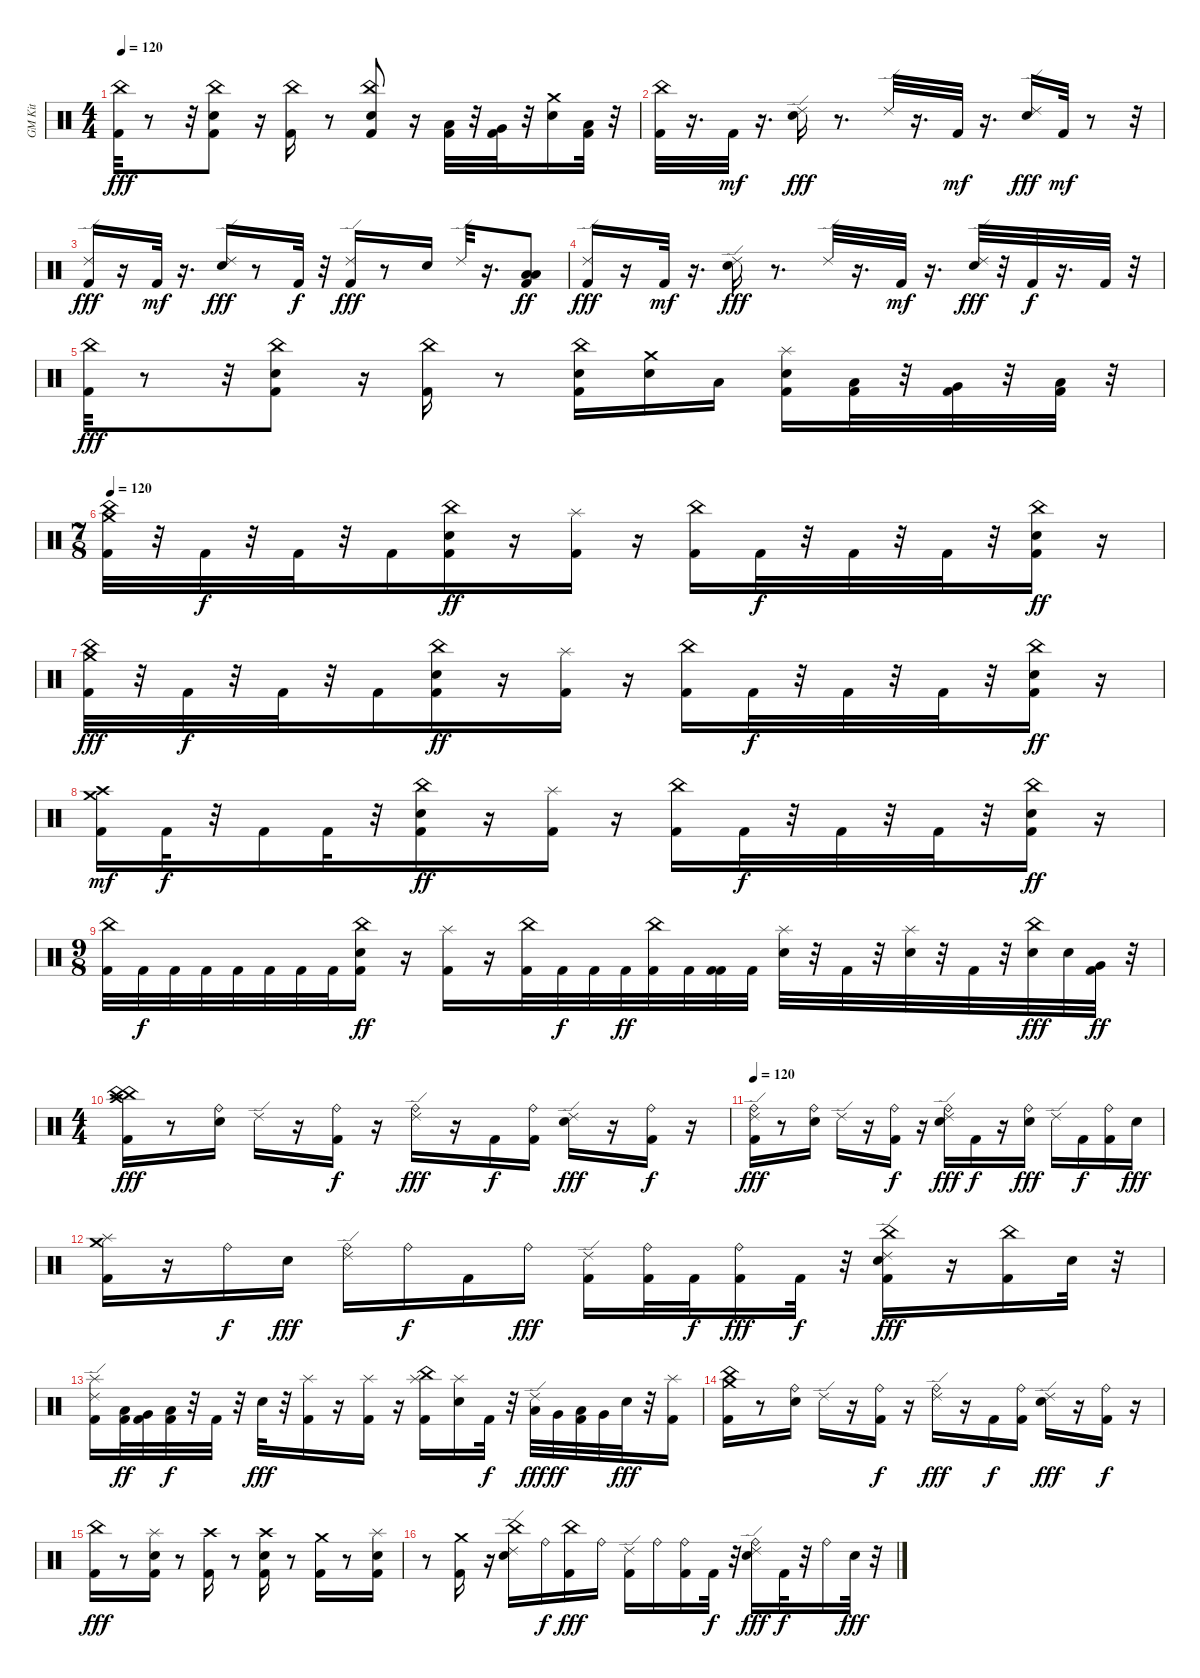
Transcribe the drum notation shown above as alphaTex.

\track ("GM Kit" "GM Kit") {instrument percussion}
\staff {score}
\articulation defaults
\ts (4 4)
\tempo 120
\clef neutral
\ks c
("Kick (hit) 2" "China (hit)").32{dy fff} r.8 r.32 ("Kick (hit) 2" "Snare (hit) 2" "China (hit)").8 r.16 ("Kick (hit) 2" "China (hit)").16 r.8 ("Kick (hit) 2" "Snare (hit) 2" "China (hit)").8 r.16 ("Kick (hit) 2" "Low Tom (hit)").32 r.32 ("Kick (hit) 2" "Very Low Tom (hit)").32 r.32 ("Snare (hit) 2" "Crash medium (hit)").16 ("Kick (hit) 2" "Low Floor Tom (hit)").32 r.32 |
("Kick (hit) 2" "China (hit)").32 r.16{d} "Kick (hit) 2".32{dy mf} r.16{d} ("Snare (hit) 2" "Ride (edge) 2").16{dy fff} r.8{d} "Ride (edge) 2".32 r.16{d} "Kick (hit) 2".32{dy mf} r.16{d} ("Snare (hit) 2" "Ride (edge) 2").16{dy fff} "Kick (hit) 2".32{dy mf} r.8 r.32 |
("Kick (hit) 2" "Ride (edge) 2").16{dy fff} r.16 "Kick (hit) 2".32{dy mf} r.16{d} ("Snare (hit) 2" "Ride (edge) 2").16{dy fff} r.8 "Kick (hit) 2".32{dy f} r.32 ("Kick (hit) 2" "Ride (edge) 2").16{dy fff} r.8 "Snare (hit) 2".16 "Ride (edge) 2".32 r.16{d} ("Kick (hit) 2" "Low Floor Tom (hit)" "Low Floor Tom (hit)").8{dy ff} |
("Kick (hit) 2" "Ride (edge) 2").16{dy fff} r.16 "Kick (hit) 2".32{dy mf} r.16{d} ("Snare (hit) 2" "Ride (edge) 2").16{dy fff} r.8{d} "Ride (edge) 2".32 r.16{d} "Kick (hit) 2".32{dy mf} r.16{d} ("Snare (hit) 2" "Ride (edge) 2").32{dy fff} r.32 "Kick (hit) 2".32{dy f} r.16{d} "Kick (hit) 2".32 r.32 |
("Kick (hit) 2" "China (hit)").32{dy fff} r.8 r.32 ("Kick (hit) 2" "Snare (hit) 2" "China (hit)").8 r.16 ("Kick (hit) 2" "China (hit)").16 r.8 ("Kick (hit) 2" "Snare (hit) 2" "China (hit)").16 ("Snare (hit) 2" "Crash medium (hit)").16 "Low Floor Tom (hit)".16 ("Kick (hit) 2" "Snare (hit) 2" "Splash (hit)").16 ("Kick (hit) 2" "Low Tom (hit)").32 r.32 ("Kick (hit) 2" "Very Low Tom (hit)").32 r.32 ("Kick (hit) 2" "Low Floor Tom (hit)").32 r.32 |
\ts (7 8)
\tempo 120
("Kick (hit) 2" "China (hit)" "Crash medium (hit)").32 r.32 "Kick (hit) 2".32{dy f} r.32 "Kick (hit) 2".32 r.32 "Kick (hit) 2".16 ("Kick (hit) 2" "Snare (hit) 2" "China (hit)").16{dy ff} r.16 ("Kick (hit) 2" "Splash (hit)").16 r.16 ("Kick (hit) 2" "China (hit)").16 "Kick (hit) 2".32{dy f} r.32 "Kick (hit) 2".32 r.32 "Kick (hit) 2".32 r.32 ("Kick (hit) 2" "Snare (hit) 2" "China (hit)").16{dy ff} r.16 |
("Kick (hit) 2" "China (hit)" "Crash medium (hit)").32{dy fff} r.32 "Kick (hit) 2".32{dy f} r.32 "Kick (hit) 2".32 r.32 "Kick (hit) 2".16 ("Kick (hit) 2" "Snare (hit) 2" "China (hit)").16{dy ff} r.16 ("Kick (hit) 2" "Splash (hit)").16 r.16 ("Kick (hit) 2" "China (hit)").16 "Kick (hit) 2".32{dy f} r.32 "Kick (hit) 2".32 r.32 "Kick (hit) 2".32 r.32 ("Kick (hit) 2" "Snare (hit) 2" "China (hit)").16{dy ff} r.16 |
("Kick (hit) 2" "Crash high (hit)" "Crash medium (hit)").16{dy mf} "Kick (hit) 2".32{dy f} r.32 "Kick (hit) 2".16 "Kick (hit) 2".32 r.32 ("Kick (hit) 2" "Snare (hit) 2" "China (hit)").16{dy ff} r.16 ("Kick (hit) 2" "Splash (hit)").16 r.16 ("Kick (hit) 2" "China (hit)").16 "Kick (hit) 2".32{dy f} r.32 "Kick (hit) 2".32 r.32 "Kick (hit) 2".32 r.32 ("Kick (hit) 2" "Snare (hit) 2" "China (hit)").16{dy ff} r.16 |
\ts (9 8)
("Kick (hit) 2" "China (hit)").32 "Kick (hit) 2".32{dy f} "Kick (hit) 2".32 "Kick (hit) 2".32 "Kick (hit) 2".32 "Kick (hit) 2".32 "Kick (hit) 2".32 "Kick (hit) 2".32 ("Kick (hit) 2" "Snare (hit) 2" "China (hit)").16{dy ff} r.16 ("Kick (hit) 2" "Splash (hit)").16 r.16 ("Kick (hit) 2" "China (hit)").32 "Kick (hit) 2".32{dy f} "Kick (hit) 2".32 "Kick (hit) 2".32{dy ff} ("Kick (hit) 2" "China (hit)").32 "Kick (hit) 2".32 ("Kick (hit) 2" "Kick (hit) 2").32 "Kick (hit) 2".32 ("Snare (hit) 2" "Splash (hit)").32 r.32 "Kick (hit) 2".32 r.32 ("Snare (hit) 2" "Splash (hit)").32 r.32 "Kick (hit) 2".32 r.32 ("Snare (hit) 2" "China (hit)").32{dy fff} "Snare (hit) 2".32 ("Kick (hit) 2" "Very Low Tom (hit)").32{dy ff} r.32 |
\ts (4 4)
("Kick (hit) 2" "Crash high (hit)" "China (hit)" "China (hit)").16{dy fff} r.8 ("Snare (hit) 2" "Ride (bell)").16 "Ride (edge) 2".16 r.16 ("Kick (hit) 2" "Ride (bell)").16{dy f} r.16 ("Ride (bell)" "Ride (edge) 2").16{dy fff} r.16 "Kick (hit) 2".16{dy f} ("Kick (hit) 2" "Ride (bell)").16 ("Snare (hit) 2" "Ride (edge) 2").16{dy fff} r.16 ("Kick (hit) 2" "Ride (bell)").16{dy f} r.16 |
\tempo 120
("Kick (hit) 2" "Ride (bell)" "Ride (edge) 2").16{dy fff} r.8 ("Snare (hit) 2" "Ride (bell)").16 "Ride (edge) 2".16 r.16 ("Kick (hit) 2" "Ride (bell)").16{dy f} r.16 ("Snare (hit) 2" "Ride (bell)" "Ride (edge) 2").16{dy fff} "Kick (hit) 2".16{dy f} r.16 ("Snare (hit) 2" "Ride (bell)").16{dy fff} "Ride (edge) 2".16 "Kick (hit) 2".16{dy f} ("Kick (hit) 2" "Ride (bell)").16 "Snare (hit) 2".16{dy fff} |
("Kick (hit) 2" "Splash (hit)" "Crash medium (hit)").16 r.16 "Ride (bell)".16{dy f} "Snare (hit) 2".16{dy fff} ("Ride (bell)" "Ride (edge) 2").16 "Ride (bell)".16{dy f} "Kick (hit) 2".16 "Ride (bell)".16{dy fff} ("Kick (hit) 2" "Ride (edge) 2").16 ("Kick (hit) 2" "Ride (bell)").32 "Kick (hit) 2".32{dy f} ("Kick (hit) 2" "Ride (bell)").16{dy fff} "Kick (hit) 2".32{dy f} r.32 ("Kick (hit) 2" "Snare (hit) 2" "China (hit)" "Ride (edge) 2").16{dy fff} r.16 ("Kick (hit) 2" "China (hit)").16 "Snare (hit) 2".32 r.32 |
("Kick (hit) 2" "Splash (hit)" "Ride (edge) 2").16 ("Kick (hit) 2" "Low Tom (hit)").32{dy ff} ("Kick (hit) 2" "Very Low Tom (hit)").32 ("Kick (hit) 2" "Low Floor Tom (hit)").32{dy f} r.32 "Kick (hit) 2".32 r.32 "Snare (hit) 2".32{dy fff} r.32 ("Kick (hit) 2" "Splash (hit)").16 r.16 ("Kick (hit) 2" "Splash (hit)").16 r.16 ("Kick (hit) 2" "China (hit)" "Splash (hit)").16 ("Snare (hit) 2" "Splash (hit)").16 "Kick (hit) 2".32{dy f} r.32 ("Low Tom (hit)" "Ride (edge) 2").32{dy fff} "Very Low Tom (hit)".32{dy ff} ("Kick (hit) 2" "Low Tom (hit)").32 "Very Low Tom (hit)".32 "Snare (hit) 2".32{dy fff} r.32 ("Kick (hit) 2" "Splash (hit)").16 |
("Kick (hit) 2" "China (hit)" "Crash medium (hit)").16 r.8 ("Snare (hit) 2" "Ride (bell)").16 "Ride (edge) 2".16 r.16 ("Kick (hit) 2" "Ride (bell)").16{dy f} r.16 ("Ride (bell)" "Ride (edge) 2").16{dy fff} r.16 "Kick (hit) 2".16{dy f} ("Kick (hit) 2" "Ride (bell)").16 ("Snare (hit) 2" "Ride (edge) 2").16{dy fff} r.16 ("Kick (hit) 2" "Ride (bell)").16{dy f} r.16 |
("Kick (hit) 2" "China (hit)").16{dy fff} r.8 ("Kick (hit) 2" "Snare (hit) 2" "Splash (hit)").16 r.8 ("Kick (hit) 2" "Crash high (hit)").16 r.8 ("Kick (hit) 2" "Snare (hit) 2" "Crash high (hit)").16 r.8 ("Kick (hit) 2" "Crash medium (hit)").16 r.8 ("Kick (hit) 2" "Snare (hit) 2" "Splash (hit)").16 |
r.8 ("Kick (hit) 2" "Crash medium (hit)").16 r.16 ("Snare (hit) 2" "China (hit)" "Ride (edge) 2").16 "Ride (bell)".16{dy f} ("Kick (hit) 2" "China (hit)").16{dy fff} "Ride (bell)".16 ("Kick (hit) 2" "Ride (edge) 2").16 "Ride (bell)".16 ("Kick (hit) 2" "Ride (bell)").16 "Kick (hit) 2".32{dy f} r.32 ("Snare (hit) 2" "Ride (bell)" "Ride (edge) 2").16{dy fff} "Kick (hit) 2".32{dy f} r.32 "Ride (bell)".16 "Snare (hit) 2".32{dy fff} r.32
